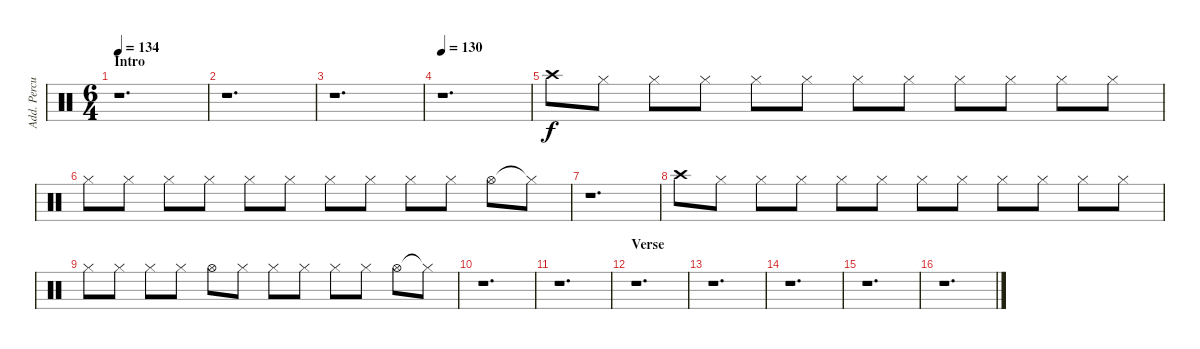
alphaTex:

\track ("Add. Percussion" "Add. Percu") {instrument percussion}
\staff {score}
\articulation defaults
\ts (6 4)
\section ("" "Intro")
\tempo 134
\tempo 140
\tempo 134
\clef neutral
\ks c
r.1{d dy f} |
r.1{d} |
r.1{d} |
\tempo 130
r.1{d} |
"Crash high (hit)".8 "Hi-Hat (closed)".8 "Hi-Hat (closed)".8 "Hi-Hat (closed)".8 "Hi-Hat (closed)".8 "Hi-Hat (closed)".8 "Hi-Hat (closed)".8 "Hi-Hat (closed)".8 "Hi-Hat (closed)".8 "Hi-Hat (closed)".8 "Hi-Hat (closed)".8 "Hi-Hat (closed)".8 |
"Hi-Hat (closed)".8 "Hi-Hat (closed)".8 "Hi-Hat (closed)".8 "Hi-Hat (closed)".8 "Hi-Hat (closed)".8 "Hi-Hat (closed)".8 "Hi-Hat (closed)".8 "Hi-Hat (closed)".8 "Hi-Hat (closed)".8 "Hi-Hat (closed)".8 "Hi-Hat (open)".8 "Hi-Hat (closed)"{t}.8 |
r.1{d} |
"Crash high (hit)".8 "Hi-Hat (closed)".8 "Hi-Hat (closed)".8 "Hi-Hat (closed)".8 "Hi-Hat (closed)".8 "Hi-Hat (closed)".8 "Hi-Hat (closed)".8 "Hi-Hat (closed)".8 "Hi-Hat (closed)".8 "Hi-Hat (closed)".8 "Hi-Hat (closed)".8 "Hi-Hat (closed)".8 |
"Hi-Hat (closed)".8 "Hi-Hat (closed)".8 "Hi-Hat (closed)".8 "Hi-Hat (closed)".8 "Hi-Hat (open)".8 "Hi-Hat (closed)".8 "Hi-Hat (closed)".8 "Hi-Hat (closed)".8 "Hi-Hat (closed)".8 "Hi-Hat (closed)".8 "Hi-Hat (open)".8 "Hi-Hat (closed)"{t}.8 |
r.1{d} |
r.1{d} |
\section ("" "Verse")
r.1{d} |
r.1{d} |
r.1{d} |
r.1{d} |
r.1{d}
